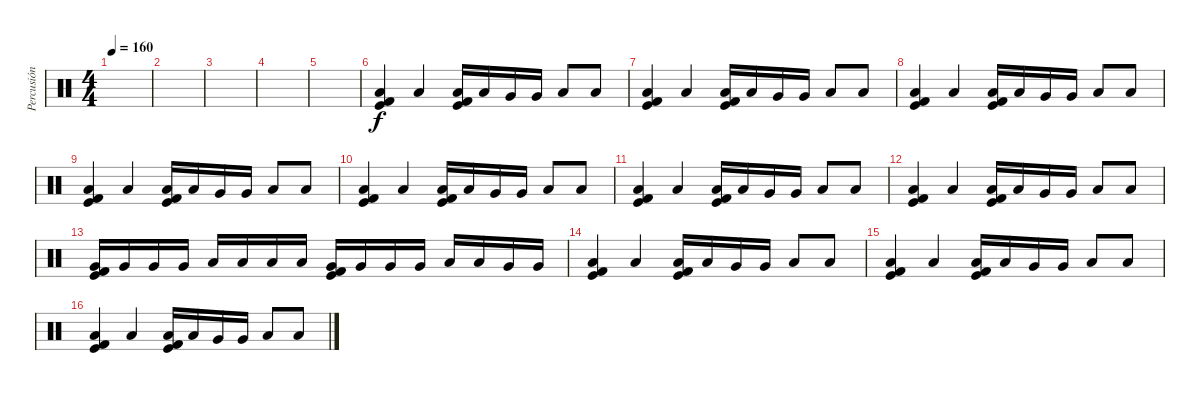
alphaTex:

\track ("Percusión" "Percusión") {instrument percussion}
\staff {score}
\articulation defaults
\ts (4 4)
\tempo 160
\clef neutral
\ks c
|
|
|
|
|
("Low Tom (hit)" "Kick (hit)" "Kick (hit) 2").4 "Low Tom (hit)".4 ("Low Floor Tom (hit)" "Kick (hit)" "Kick (hit) 2").16 "Low Floor Tom (hit)".16 "Very Low Tom (hit)".16 "Very Low Tom (hit)".16 "Low Tom (hit)".8 "Low Tom (hit)".8 |
("Low Tom (hit)" "Kick (hit)" "Kick (hit) 2").4 "Low Tom (hit)".4 ("Low Floor Tom (hit)" "Kick (hit)" "Kick (hit) 2").16 "Low Floor Tom (hit)".16 "Very Low Tom (hit)".16 "Very Low Tom (hit)".16 "Low Tom (hit)".8 "Low Tom (hit)".8 |
("Low Tom (hit)" "Kick (hit)" "Kick (hit) 2").4 "Low Tom (hit)".4 ("Low Floor Tom (hit)" "Kick (hit)" "Kick (hit) 2").16 "Low Floor Tom (hit)".16 "Very Low Tom (hit)".16 "Very Low Tom (hit)".16 "Low Tom (hit)".8 "Low Tom (hit)".8 |
("Low Tom (hit)" "Kick (hit)" "Kick (hit) 2").4 "Low Tom (hit)".4 ("Low Floor Tom (hit)" "Kick (hit)" "Kick (hit) 2").16 "Low Floor Tom (hit)".16 "Very Low Tom (hit)".16 "Very Low Tom (hit)".16 "Low Tom (hit)".8 "Low Tom (hit)".8 |
("Low Tom (hit)" "Kick (hit)" "Kick (hit) 2").4 "Low Tom (hit)".4 ("Low Floor Tom (hit)" "Kick (hit)" "Kick (hit) 2").16 "Low Floor Tom (hit)".16 "Very Low Tom (hit)".16 "Very Low Tom (hit)".16 "Low Tom (hit)".8 "Low Tom (hit)".8 |
("Low Tom (hit)" "Kick (hit)" "Kick (hit) 2").4 "Low Tom (hit)".4 ("Low Floor Tom (hit)" "Kick (hit)" "Kick (hit) 2").16 "Low Floor Tom (hit)".16 "Very Low Tom (hit)".16 "Very Low Tom (hit)".16 "Low Tom (hit)".8 "Low Tom (hit)".8 |
("Low Tom (hit)" "Kick (hit)" "Kick (hit) 2").4 "Low Tom (hit)".4 ("Low Floor Tom (hit)" "Kick (hit)" "Kick (hit) 2").16 "Low Floor Tom (hit)".16 "Very Low Tom (hit)".16 "Very Low Tom (hit)".16 "Low Tom (hit)".8 "Low Tom (hit)".8 |
("Very Low Tom (hit)" "Kick (hit)" "Kick (hit) 2").16 "Very Low Tom (hit)".16 "Very Low Tom (hit)".16 "Very Low Tom (hit)".16 "Low Tom (hit)".16 "Low Tom (hit)".16 "Low Tom (hit)".16 "Low Tom (hit)".16 ("Very Low Tom (hit)" "Kick (hit)" "Kick (hit) 2").16 "Very Low Tom (hit)".16 "Very Low Tom (hit)".16 "Very Low Tom (hit)".16 "Low Tom (hit)".16 "Low Tom (hit)".16 "Very Low Tom (hit)".16 "Very Low Tom (hit)".16 |
("Low Tom (hit)" "Kick (hit)" "Kick (hit) 2").4 "Low Tom (hit)".4 ("Low Floor Tom (hit)" "Kick (hit)" "Kick (hit) 2").16 "Low Floor Tom (hit)".16 "Very Low Tom (hit)".16 "Very Low Tom (hit)".16 "Low Tom (hit)".8 "Low Tom (hit)".8 |
("Low Tom (hit)" "Kick (hit)" "Kick (hit) 2").4 "Low Tom (hit)".4 ("Low Floor Tom (hit)" "Kick (hit)" "Kick (hit) 2").16 "Low Floor Tom (hit)".16 "Very Low Tom (hit)".16 "Very Low Tom (hit)".16 "Low Tom (hit)".8 "Low Tom (hit)".8 |
("Low Tom (hit)" "Kick (hit)" "Kick (hit) 2").4 "Low Tom (hit)".4 ("Low Floor Tom (hit)" "Kick (hit)" "Kick (hit) 2").16 "Low Floor Tom (hit)".16 "Very Low Tom (hit)".16 "Very Low Tom (hit)".16 "Low Tom (hit)".8 "Low Tom (hit)".8
